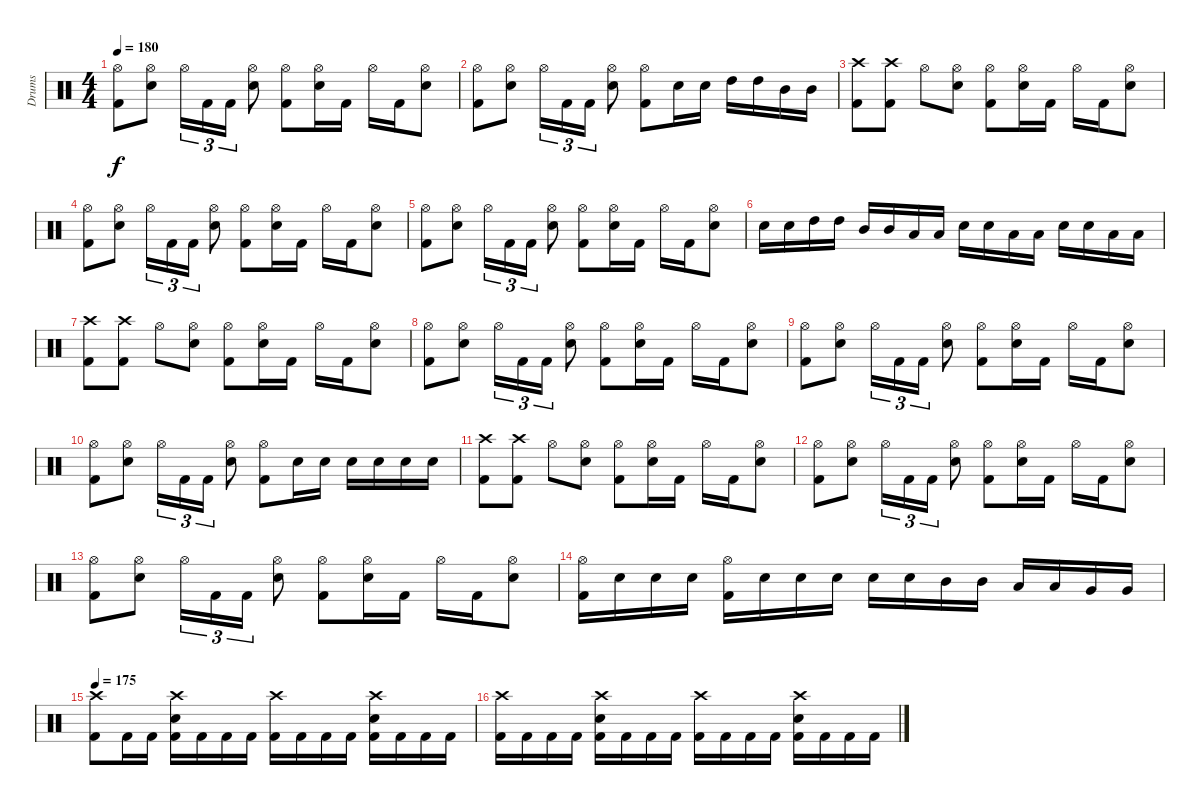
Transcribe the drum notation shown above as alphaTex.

\track ("Drums" "Drums") {instrument percussion}
\staff {score}
\articulation defaults
\ts (4 4)
\tempo 180
\clef neutral
\ks c
("Hi-Hat (open)" "Kick (hit) 2").8{dy f} ("Hi-Hat (open)" "Electric Snare (hit)").8 "Hi-Hat (open)".16{tu (3 2)} "Kick (hit) 2".16{tu (3 2)} "Kick (hit) 2".16{tu (3 2)} ("Hi-Hat (open)" "Electric Snare (hit)").8 ("Hi-Hat (open)" "Kick (hit) 2").8 ("Hi-Hat (open)" "Electric Snare (hit)").16 "Kick (hit) 2".16 "Hi-Hat (open)".16 "Kick (hit) 2".16 ("Hi-Hat (open)" "Electric Snare (hit)").8 |
("Hi-Hat (open)" "Kick (hit) 2").8 ("Hi-Hat (open)" "Electric Snare (hit)").8 "Hi-Hat (open)".16{tu (3 2)} "Kick (hit) 2".16{tu (3 2)} "Kick (hit) 2".16{tu (3 2)} ("Hi-Hat (open)" "Electric Snare (hit)").8 ("Hi-Hat (open)" "Kick (hit) 2").8 "Electric Snare (hit)".16 "Electric Snare (hit)".16 "High Tom (hit)".16 "High Tom (hit)".16 "Mid Tom (hit)".16 "Mid Tom (hit)".16 |
("Crash high (hit)" "Kick (hit) 2").8 ("Crash high (hit)" "Kick (hit) 2").8 "Hi-Hat (open)".8 ("Hi-Hat (open)" "Electric Snare (hit)").8 ("Hi-Hat (open)" "Kick (hit) 2").8 ("Hi-Hat (open)" "Electric Snare (hit)").16 "Kick (hit) 2".16 "Hi-Hat (open)".16 "Kick (hit) 2".16 ("Hi-Hat (open)" "Electric Snare (hit)").8 |
("Hi-Hat (open)" "Kick (hit) 2").8 ("Hi-Hat (open)" "Electric Snare (hit)").8 "Hi-Hat (open)".16{tu (3 2)} "Kick (hit) 2".16{tu (3 2)} "Kick (hit) 2".16{tu (3 2)} ("Hi-Hat (open)" "Electric Snare (hit)").8 ("Hi-Hat (open)" "Kick (hit) 2").8 ("Hi-Hat (open)" "Electric Snare (hit)").16 "Kick (hit) 2".16 "Hi-Hat (open)".16 "Kick (hit) 2".16 ("Hi-Hat (open)" "Electric Snare (hit)").8 |
("Hi-Hat (open)" "Kick (hit) 2").8 ("Hi-Hat (open)" "Electric Snare (hit)").8 "Hi-Hat (open)".16{tu (3 2)} "Kick (hit) 2".16{tu (3 2)} "Kick (hit) 2".16{tu (3 2)} ("Hi-Hat (open)" "Electric Snare (hit)").8 ("Hi-Hat (open)" "Kick (hit) 2").8 ("Hi-Hat (open)" "Electric Snare (hit)").16 "Kick (hit) 2".16 "Hi-Hat (open)".16 "Kick (hit) 2".16 ("Hi-Hat (open)" "Electric Snare (hit)").8 |
"Electric Snare (hit)".16 "Electric Snare (hit)".16 "High Tom (hit)".16 "High Tom (hit)".16 "Mid Tom (hit)".16 "Mid Tom (hit)".16 "Low Tom (hit)".16 "Low Tom (hit)".16 "Electric Snare (hit)".16 "Electric Snare (hit)".16 "Low Tom (hit)".16 "Low Tom (hit)".16 "Electric Snare (hit)".16 "Electric Snare (hit)".16 "Low Tom (hit)".16 "Low Tom (hit)".16 |
("Crash high (hit)" "Kick (hit) 2").8 ("Crash high (hit)" "Kick (hit) 2").8 "Hi-Hat (open)".8 ("Hi-Hat (open)" "Electric Snare (hit)").8 ("Hi-Hat (open)" "Kick (hit) 2").8 ("Hi-Hat (open)" "Electric Snare (hit)").16 "Kick (hit) 2".16 "Hi-Hat (open)".16 "Kick (hit) 2".16 ("Hi-Hat (open)" "Electric Snare (hit)").8 |
("Hi-Hat (open)" "Kick (hit) 2").8 ("Hi-Hat (open)" "Electric Snare (hit)").8 "Hi-Hat (open)".16{tu (3 2)} "Kick (hit) 2".16{tu (3 2)} "Kick (hit) 2".16{tu (3 2)} ("Hi-Hat (open)" "Electric Snare (hit)").8 ("Hi-Hat (open)" "Kick (hit) 2").8 ("Hi-Hat (open)" "Electric Snare (hit)").16 "Kick (hit) 2".16 "Hi-Hat (open)".16 "Kick (hit) 2".16 ("Hi-Hat (open)" "Electric Snare (hit)").8 |
("Hi-Hat (open)" "Kick (hit) 2").8 ("Hi-Hat (open)" "Electric Snare (hit)").8 "Hi-Hat (open)".16{tu (3 2)} "Kick (hit) 2".16{tu (3 2)} "Kick (hit) 2".16{tu (3 2)} ("Hi-Hat (open)" "Electric Snare (hit)").8 ("Hi-Hat (open)" "Kick (hit) 2").8 ("Hi-Hat (open)" "Electric Snare (hit)").16 "Kick (hit) 2".16 "Hi-Hat (open)".16 "Kick (hit) 2".16 ("Hi-Hat (open)" "Electric Snare (hit)").8 |
("Hi-Hat (open)" "Kick (hit) 2").8 ("Hi-Hat (open)" "Electric Snare (hit)").8 "Hi-Hat (open)".16{tu (3 2)} "Kick (hit) 2".16{tu (3 2)} "Kick (hit) 2".16{tu (3 2)} ("Hi-Hat (open)" "Electric Snare (hit)").8 ("Hi-Hat (open)" "Kick (hit) 2").8 "Electric Snare (hit)".16 "Electric Snare (hit)".16 "Electric Snare (hit)".16 "Electric Snare (hit)".16 "Electric Snare (hit)".16 "Electric Snare (hit)".16 |
("Crash high (hit)" "Kick (hit) 2").8 ("Crash high (hit)" "Kick (hit) 2").8 "Hi-Hat (open)".8 ("Hi-Hat (open)" "Electric Snare (hit)").8 ("Hi-Hat (open)" "Kick (hit) 2").8 ("Hi-Hat (open)" "Electric Snare (hit)").16 "Kick (hit) 2".16 "Hi-Hat (open)".16 "Kick (hit) 2".16 ("Hi-Hat (open)" "Electric Snare (hit)").8 |
("Hi-Hat (open)" "Kick (hit) 2").8 ("Hi-Hat (open)" "Electric Snare (hit)").8 "Hi-Hat (open)".16{tu (3 2)} "Kick (hit) 2".16{tu (3 2)} "Kick (hit) 2".16{tu (3 2)} ("Hi-Hat (open)" "Electric Snare (hit)").8 ("Hi-Hat (open)" "Kick (hit) 2").8 ("Hi-Hat (open)" "Electric Snare (hit)").16 "Kick (hit) 2".16 "Hi-Hat (open)".16 "Kick (hit) 2".16 ("Hi-Hat (open)" "Electric Snare (hit)").8 |
("Hi-Hat (open)" "Kick (hit) 2").8 ("Hi-Hat (open)" "Electric Snare (hit)").8 "Hi-Hat (open)".16{tu (3 2)} "Kick (hit) 2".16{tu (3 2)} "Kick (hit) 2".16{tu (3 2)} ("Hi-Hat (open)" "Electric Snare (hit)").8 ("Hi-Hat (open)" "Kick (hit) 2").8 ("Hi-Hat (open)" "Electric Snare (hit)").16 "Kick (hit) 2".16 "Hi-Hat (open)".16 "Kick (hit) 2".16 ("Hi-Hat (open)" "Electric Snare (hit)").8 |
("Hi-Hat (open)" "Kick (hit) 2").16 "Electric Snare (hit)".16 "Electric Snare (hit)".16 "Electric Snare (hit)".16 ("Hi-Hat (open)" "Kick (hit) 2").16 "Electric Snare (hit)".16 "Electric Snare (hit)".16 "Electric Snare (hit)".16 "Electric Snare (hit)".16 "Electric Snare (hit)".16 "Mid Tom (hit)".16 "Mid Tom (hit)".16 "Low Tom (hit)".16 "Low Tom (hit)".16 "Very Low Tom (hit)".16 "Very Low Tom (hit)".16 |
\tempo 175
("Crash high (hit)" "Kick (hit) 2").8 "Kick (hit) 2".16 "Kick (hit) 2".16 ("Crash high (hit)" "Electric Snare (hit)" "Kick (hit) 2").16 "Kick (hit) 2".16 "Kick (hit) 2".16 "Kick (hit) 2".16 ("Crash high (hit)" "Kick (hit) 2").16 "Kick (hit) 2".16 "Kick (hit) 2".16 "Kick (hit) 2".16 ("Crash high (hit)" "Electric Snare (hit)" "Kick (hit) 2").16 "Kick (hit) 2".16 "Kick (hit) 2".16 "Kick (hit) 2".16 |
("Crash high (hit)" "Kick (hit) 2").16 "Kick (hit) 2".16 "Kick (hit) 2".16 "Kick (hit) 2".16 ("Crash high (hit)" "Electric Snare (hit)" "Kick (hit) 2").16 "Kick (hit) 2".16 "Kick (hit) 2".16 "Kick (hit) 2".16 ("Crash high (hit)" "Kick (hit) 2").16 "Kick (hit) 2".16 "Kick (hit) 2".16 "Kick (hit) 2".16 ("Crash high (hit)" "Electric Snare (hit)" "Kick (hit) 2").16 "Kick (hit) 2".16 "Kick (hit) 2".16 "Kick (hit) 2".16
